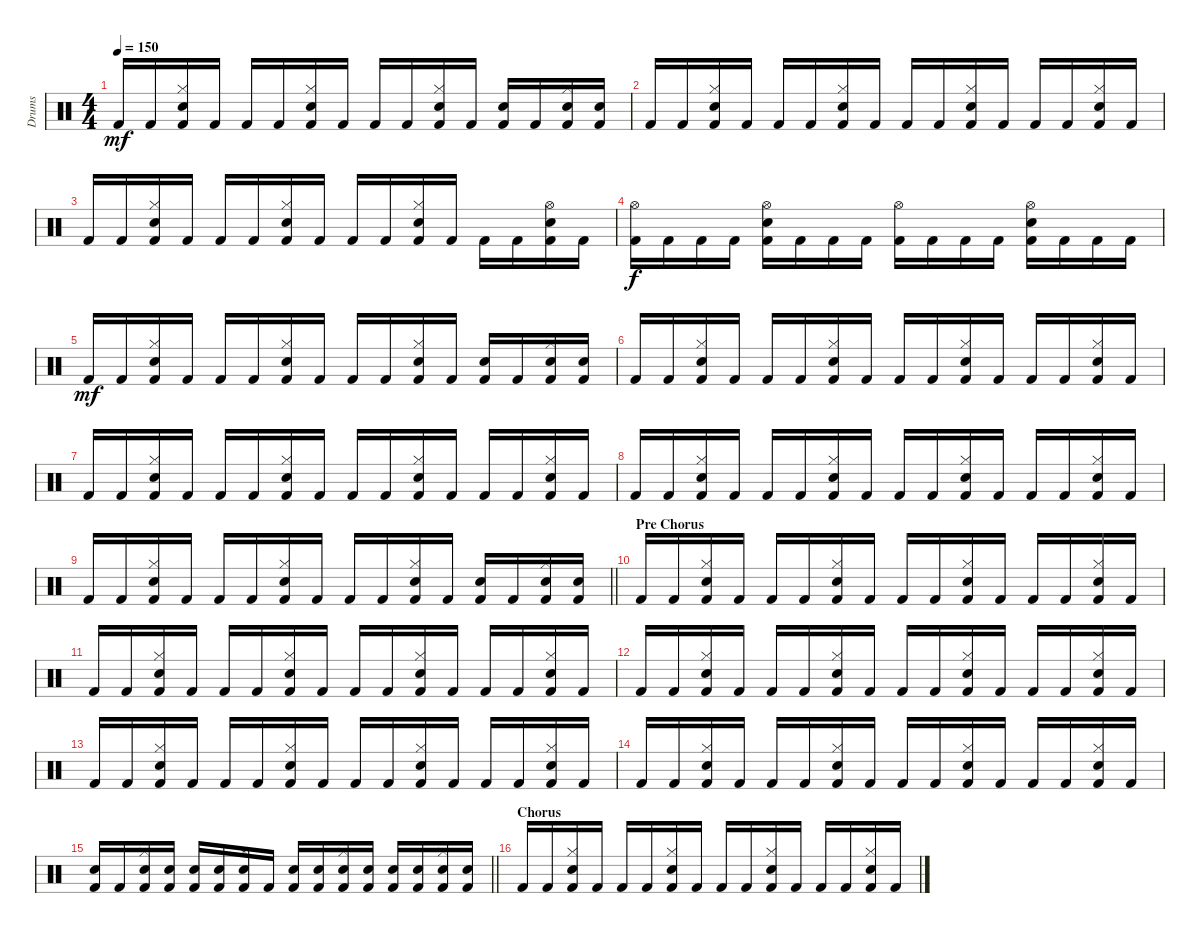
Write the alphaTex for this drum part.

\track ("Drums" "Drums") {instrument percussion}
\staff {score}
\articulation defaults
\ts (4 4)
\tempo 150
\clef neutral
\ks c "Kick (hit) 2".16{dy mf} "Kick (hit) 2".16
("Hi-Hat (closed)" "Electric Snare (hit)" "Kick (hit) 2").16 "Kick (hit) 2".16 "Kick (hit) 2".16 "Kick (hit) 2".16 ("Hi-Hat (closed)" "Electric Snare (hit)" "Kick (hit) 2").16 "Kick (hit) 2".16 "Kick (hit) 2".16 "Kick (hit) 2".16 ("Hi-Hat (closed)" "Electric Snare (hit)" "Kick (hit) 2").16 "Kick (hit) 2".16 ("Electric Snare (hit)" "Kick (hit) 2").16 "Kick (hit) 2".16 ("Hi-Hat (closed)" "Electric Snare (hit)" "Kick (hit) 2").16 ("Electric Snare (hit)" "Kick (hit) 2").16 |
"Kick (hit) 2".16 "Kick (hit) 2".16 ("Hi-Hat (closed)" "Electric Snare (hit)" "Kick (hit) 2").16 "Kick (hit) 2".16 "Kick (hit) 2".16 "Kick (hit) 2".16 ("Hi-Hat (closed)" "Electric Snare (hit)" "Kick (hit) 2").16 "Kick (hit) 2".16 "Kick (hit) 2".16 "Kick (hit) 2".16 ("Hi-Hat (closed)" "Electric Snare (hit)" "Kick (hit) 2").16 "Kick (hit) 2".16 "Kick (hit) 2".16 "Kick (hit) 2".16 ("Hi-Hat (closed)" "Electric Snare (hit)" "Kick (hit) 2").16 "Kick (hit) 2".16 |
"Kick (hit) 2".16 "Kick (hit) 2".16 ("Hi-Hat (closed)" "Electric Snare (hit)" "Kick (hit) 2").16 "Kick (hit) 2".16 "Kick (hit) 2".16 "Kick (hit) 2".16 ("Hi-Hat (closed)" "Electric Snare (hit)" "Kick (hit) 2").16 "Kick (hit) 2".16 "Kick (hit) 2".16 "Kick (hit) 2".16 ("Hi-Hat (closed)" "Electric Snare (hit)" "Kick (hit) 2").16 "Kick (hit) 2".16 "Kick (hit) 2".16 "Kick (hit) 2".16 ("Hi-Hat (open)" "Electric Snare (hit)" "Kick (hit) 2").16 "Kick (hit) 2".16 |
("Hi-Hat (open)" "Kick (hit) 2").16{dy f} "Kick (hit) 2".16 "Kick (hit) 2".16 "Kick (hit) 2".16 ("Hi-Hat (open)" "Electric Snare (hit)" "Kick (hit) 2").16 "Kick (hit) 2".16 "Kick (hit) 2".16 "Kick (hit) 2".16 ("Hi-Hat (open)" "Kick (hit) 2").16 "Kick (hit) 2".16 "Kick (hit) 2".16 "Kick (hit) 2".16 ("Hi-Hat (open)" "Electric Snare (hit)" "Kick (hit) 2").16 "Kick (hit) 2".16 "Kick (hit) 2".16 "Kick (hit) 2".16 |
"Kick (hit) 2".16{dy mf} "Kick (hit) 2".16 ("Hi-Hat (closed)" "Electric Snare (hit)" "Kick (hit) 2").16 "Kick (hit) 2".16 "Kick (hit) 2".16 "Kick (hit) 2".16 ("Hi-Hat (closed)" "Electric Snare (hit)" "Kick (hit) 2").16 "Kick (hit) 2".16 "Kick (hit) 2".16 "Kick (hit) 2".16 ("Hi-Hat (closed)" "Electric Snare (hit)" "Kick (hit) 2").16 "Kick (hit) 2".16 ("Electric Snare (hit)" "Kick (hit) 2").16 "Kick (hit) 2".16 ("Hi-Hat (closed)" "Electric Snare (hit)" "Kick (hit) 2").16 ("Electric Snare (hit)" "Kick (hit) 2").16 |
"Kick (hit) 2".16 "Kick (hit) 2".16 ("Hi-Hat (closed)" "Electric Snare (hit)" "Kick (hit) 2").16 "Kick (hit) 2".16 "Kick (hit) 2".16 "Kick (hit) 2".16 ("Hi-Hat (closed)" "Electric Snare (hit)" "Kick (hit) 2").16 "Kick (hit) 2".16 "Kick (hit) 2".16 "Kick (hit) 2".16 ("Hi-Hat (closed)" "Electric Snare (hit)" "Kick (hit) 2").16 "Kick (hit) 2".16 "Kick (hit) 2".16 "Kick (hit) 2".16 ("Hi-Hat (closed)" "Electric Snare (hit)" "Kick (hit) 2").16 "Kick (hit) 2".16 |
"Kick (hit) 2".16 "Kick (hit) 2".16 ("Hi-Hat (closed)" "Electric Snare (hit)" "Kick (hit) 2").16 "Kick (hit) 2".16 "Kick (hit) 2".16 "Kick (hit) 2".16 ("Hi-Hat (closed)" "Electric Snare (hit)" "Kick (hit) 2").16 "Kick (hit) 2".16 "Kick (hit) 2".16 "Kick (hit) 2".16 ("Hi-Hat (closed)" "Electric Snare (hit)" "Kick (hit) 2").16 "Kick (hit) 2".16 "Kick (hit) 2".16 "Kick (hit) 2".16 ("Hi-Hat (closed)" "Electric Snare (hit)" "Kick (hit) 2").16 "Kick (hit) 2".16 |
"Kick (hit) 2".16 "Kick (hit) 2".16 ("Hi-Hat (closed)" "Electric Snare (hit)" "Kick (hit) 2").16 "Kick (hit) 2".16 "Kick (hit) 2".16 "Kick (hit) 2".16 ("Hi-Hat (closed)" "Electric Snare (hit)" "Kick (hit) 2").16 "Kick (hit) 2".16 "Kick (hit) 2".16 "Kick (hit) 2".16 ("Hi-Hat (closed)" "Electric Snare (hit)" "Kick (hit) 2").16 "Kick (hit) 2".16 "Kick (hit) 2".16 "Kick (hit) 2".16 ("Hi-Hat (closed)" "Electric Snare (hit)" "Kick (hit) 2").16 "Kick (hit) 2".16 |
\barLineRight lightlight "Kick (hit) 2".16 "Kick (hit) 2".16
("Hi-Hat (closed)" "Electric Snare (hit)" "Kick (hit) 2").16 "Kick (hit) 2".16 "Kick (hit) 2".16 "Kick (hit) 2".16 ("Hi-Hat (closed)" "Electric Snare (hit)" "Kick (hit) 2").16 "Kick (hit) 2".16 "Kick (hit) 2".16 "Kick (hit) 2".16 ("Hi-Hat (closed)" "Electric Snare (hit)" "Kick (hit) 2").16 "Kick (hit) 2".16 ("Electric Snare (hit)" "Kick (hit) 2").16 "Kick (hit) 2".16 ("Hi-Hat (closed)" "Electric Snare (hit)" "Kick (hit) 2").16 ("Electric Snare (hit)" "Kick (hit) 2").16 |
\section ("" "Pre Chorus")
"Kick (hit) 2".16 "Kick (hit) 2".16 ("Hi-Hat (closed)" "Electric Snare (hit)" "Kick (hit) 2").16 "Kick (hit) 2".16 "Kick (hit) 2".16 "Kick (hit) 2".16 ("Hi-Hat (closed)" "Electric Snare (hit)" "Kick (hit) 2").16 "Kick (hit) 2".16 "Kick (hit) 2".16 "Kick (hit) 2".16 ("Hi-Hat (closed)" "Electric Snare (hit)" "Kick (hit) 2").16 "Kick (hit) 2".16 "Kick (hit) 2".16 "Kick (hit) 2".16 ("Hi-Hat (closed)" "Electric Snare (hit)" "Kick (hit) 2").16 "Kick (hit) 2".16 |
"Kick (hit) 2".16 "Kick (hit) 2".16 ("Hi-Hat (closed)" "Electric Snare (hit)" "Kick (hit) 2").16 "Kick (hit) 2".16 "Kick (hit) 2".16 "Kick (hit) 2".16 ("Hi-Hat (closed)" "Electric Snare (hit)" "Kick (hit) 2").16 "Kick (hit) 2".16 "Kick (hit) 2".16 "Kick (hit) 2".16 ("Hi-Hat (closed)" "Electric Snare (hit)" "Kick (hit) 2").16 "Kick (hit) 2".16 "Kick (hit) 2".16 "Kick (hit) 2".16 ("Hi-Hat (closed)" "Electric Snare (hit)" "Kick (hit) 2").16 "Kick (hit) 2".16 |
"Kick (hit) 2".16 "Kick (hit) 2".16 ("Hi-Hat (closed)" "Electric Snare (hit)" "Kick (hit) 2").16 "Kick (hit) 2".16 "Kick (hit) 2".16 "Kick (hit) 2".16 ("Hi-Hat (closed)" "Electric Snare (hit)" "Kick (hit) 2").16 "Kick (hit) 2".16 "Kick (hit) 2".16 "Kick (hit) 2".16 ("Hi-Hat (closed)" "Electric Snare (hit)" "Kick (hit) 2").16 "Kick (hit) 2".16 "Kick (hit) 2".16 "Kick (hit) 2".16 ("Hi-Hat (closed)" "Electric Snare (hit)" "Kick (hit) 2").16 "Kick (hit) 2".16 |
"Kick (hit) 2".16 "Kick (hit) 2".16 ("Hi-Hat (closed)" "Electric Snare (hit)" "Kick (hit) 2").16 "Kick (hit) 2".16 "Kick (hit) 2".16 "Kick (hit) 2".16 ("Hi-Hat (closed)" "Electric Snare (hit)" "Kick (hit) 2").16 "Kick (hit) 2".16 "Kick (hit) 2".16 "Kick (hit) 2".16 ("Hi-Hat (closed)" "Electric Snare (hit)" "Kick (hit) 2").16 "Kick (hit) 2".16 "Kick (hit) 2".16 "Kick (hit) 2".16 ("Hi-Hat (closed)" "Electric Snare (hit)" "Kick (hit) 2").16 "Kick (hit) 2".16 |
"Kick (hit) 2".16 "Kick (hit) 2".16 ("Hi-Hat (closed)" "Electric Snare (hit)" "Kick (hit) 2").16 "Kick (hit) 2".16 "Kick (hit) 2".16 "Kick (hit) 2".16 ("Hi-Hat (closed)" "Electric Snare (hit)" "Kick (hit) 2").16 "Kick (hit) 2".16 "Kick (hit) 2".16 "Kick (hit) 2".16 ("Hi-Hat (closed)" "Electric Snare (hit)" "Kick (hit) 2").16 "Kick (hit) 2".16 "Kick (hit) 2".16 "Kick (hit) 2".16 ("Hi-Hat (closed)" "Electric Snare (hit)" "Kick (hit) 2").16 "Kick (hit) 2".16 |
\barLineRight lightlight
("Electric Snare (hit)" "Kick (hit) 2").16 "Kick (hit) 2".16 ("Hi-Hat (closed)" "Electric Snare (hit)" "Kick (hit) 2").16 ("Electric Snare (hit)" "Kick (hit) 2").16 ("Electric Snare (hit)" "Kick (hit) 2").16 ("Electric Snare (hit)" "Kick (hit) 2").16 ("Hi-Hat (closed)" "Electric Snare (hit)" "Kick (hit) 2").16 "Kick (hit) 2".16 ("Electric Snare (hit)" "Kick (hit) 2").16 ("Electric Snare (hit)" "Kick (hit) 2").16 ("Hi-Hat (closed)" "Electric Snare (hit)" "Kick (hit) 2").16 ("Electric Snare (hit)" "Kick (hit) 2").16 ("Electric Snare (hit)" "Kick (hit) 2").16 ("Electric Snare (hit)" "Kick (hit) 2").16 ("Hi-Hat (closed)" "Electric Snare (hit)" "Kick (hit) 2").16 ("Electric Snare (hit)" "Kick (hit) 2").16 |
\section ("" "Chorus")
"Kick (hit) 2".16 "Kick (hit) 2".16 ("Hi-Hat (closed)" "Electric Snare (hit)" "Kick (hit) 2").16 "Kick (hit) 2".16 "Kick (hit) 2".16 "Kick (hit) 2".16 ("Hi-Hat (closed)" "Electric Snare (hit)" "Kick (hit) 2").16 "Kick (hit) 2".16 "Kick (hit) 2".16 "Kick (hit) 2".16 ("Hi-Hat (closed)" "Electric Snare (hit)" "Kick (hit) 2").16 "Kick (hit) 2".16 "Kick (hit) 2".16 "Kick (hit) 2".16 ("Hi-Hat (closed)" "Electric Snare (hit)" "Kick (hit) 2").16 "Kick (hit) 2".16
